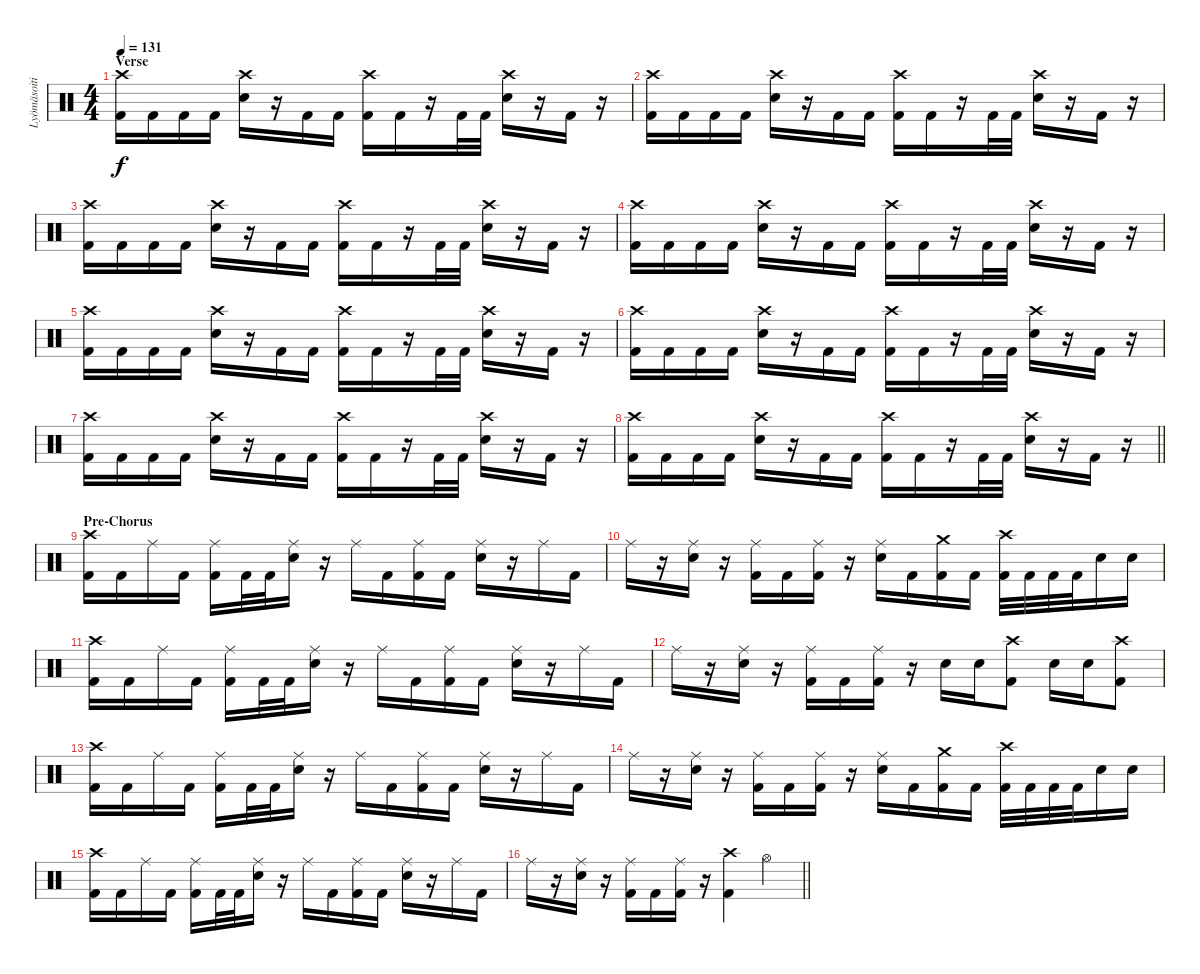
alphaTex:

\track ("Lyömäsoitin" "Lyömäsoiti") {instrument percussion}
\staff {score}
\articulation defaults
\ts (4 4)
\section ("" "Verse")
\tempo 131
\clef neutral
\ks c
("Crash high (hit)" "Kick (hit) 2").16{dy f} "Kick (hit) 2".16 "Kick (hit) 2".16 "Kick (hit) 2".16 ("Crash high (hit)" "Electric Snare (hit)").16 r.16 "Kick (hit) 2".16 "Kick (hit) 2".16 ("Crash high (hit)" "Kick (hit) 2").16 "Kick (hit) 2".16 r.16 "Kick (hit) 2".32 "Kick (hit) 2".32 ("Crash high (hit)" "Electric Snare (hit)").16 r.16 "Kick (hit) 2".16 r.16 |
("Crash high (hit)" "Kick (hit) 2").16 "Kick (hit) 2".16 "Kick (hit) 2".16 "Kick (hit) 2".16 ("Crash high (hit)" "Electric Snare (hit)").16 r.16 "Kick (hit) 2".16 "Kick (hit) 2".16 ("Crash high (hit)" "Kick (hit) 2").16 "Kick (hit) 2".16 r.16 "Kick (hit) 2".32 "Kick (hit) 2".32 ("Crash high (hit)" "Electric Snare (hit)").16 r.16 "Kick (hit) 2".16 r.16 |
("Crash high (hit)" "Kick (hit) 2").16 "Kick (hit) 2".16 "Kick (hit) 2".16 "Kick (hit) 2".16 ("Crash high (hit)" "Electric Snare (hit)").16 r.16 "Kick (hit) 2".16 "Kick (hit) 2".16 ("Crash high (hit)" "Kick (hit) 2").16 "Kick (hit) 2".16 r.16 "Kick (hit) 2".32 "Kick (hit) 2".32 ("Crash high (hit)" "Electric Snare (hit)").16 r.16 "Kick (hit) 2".16 r.16 |
("Crash high (hit)" "Kick (hit) 2").16 "Kick (hit) 2".16 "Kick (hit) 2".16 "Kick (hit) 2".16 ("Crash high (hit)" "Electric Snare (hit)").16 r.16 "Kick (hit) 2".16 "Kick (hit) 2".16 ("Crash high (hit)" "Kick (hit) 2").16 "Kick (hit) 2".16 r.16 "Kick (hit) 2".32 "Kick (hit) 2".32 ("Crash high (hit)" "Electric Snare (hit)").16 r.16 "Kick (hit) 2".16 r.16 |
("Crash high (hit)" "Kick (hit) 2").16 "Kick (hit) 2".16 "Kick (hit) 2".16 "Kick (hit) 2".16 ("Crash high (hit)" "Electric Snare (hit)").16 r.16 "Kick (hit) 2".16 "Kick (hit) 2".16 ("Crash high (hit)" "Kick (hit) 2").16 "Kick (hit) 2".16 r.16 "Kick (hit) 2".32 "Kick (hit) 2".32 ("Crash high (hit)" "Electric Snare (hit)").16 r.16 "Kick (hit) 2".16 r.16 |
("Crash high (hit)" "Kick (hit) 2").16 "Kick (hit) 2".16 "Kick (hit) 2".16 "Kick (hit) 2".16 ("Crash high (hit)" "Electric Snare (hit)").16 r.16 "Kick (hit) 2".16 "Kick (hit) 2".16 ("Crash high (hit)" "Kick (hit) 2").16 "Kick (hit) 2".16 r.16 "Kick (hit) 2".32 "Kick (hit) 2".32 ("Crash high (hit)" "Electric Snare (hit)").16 r.16 "Kick (hit) 2".16 r.16 |
("Crash high (hit)" "Kick (hit) 2").16 "Kick (hit) 2".16 "Kick (hit) 2".16 "Kick (hit) 2".16 ("Crash high (hit)" "Electric Snare (hit)").16 r.16 "Kick (hit) 2".16 "Kick (hit) 2".16 ("Crash high (hit)" "Kick (hit) 2").16 "Kick (hit) 2".16 r.16 "Kick (hit) 2".32 "Kick (hit) 2".32 ("Crash high (hit)" "Electric Snare (hit)").16 r.16 "Kick (hit) 2".16 r.16 |
\barLineRight lightlight
("Crash high (hit)" "Kick (hit) 2").16 "Kick (hit) 2".16 "Kick (hit) 2".16 "Kick (hit) 2".16 ("Crash high (hit)" "Electric Snare (hit)").16 r.16 "Kick (hit) 2".16 "Kick (hit) 2".16 ("Crash high (hit)" "Kick (hit) 2").16 "Kick (hit) 2".16 r.16 "Kick (hit) 2".32 "Kick (hit) 2".32 ("Crash high (hit)" "Electric Snare (hit)").16 r.16 "Kick (hit) 2".16 r.16 |
\section ("" "Pre-Chorus")
("Crash high (hit)" "Kick (hit) 2").16 "Kick (hit) 2".16 "Ride (middle)".16 "Kick (hit) 2".16 ("Ride (middle)" "Kick (hit) 2").16 "Kick (hit) 2".32 "Kick (hit) 2".32 ("Ride (middle)" "Electric Snare (hit)").16 r.16 "Ride (middle)".16 "Kick (hit) 2".16 ("Ride (middle)" "Kick (hit) 2").16 "Kick (hit) 2".16 ("Ride (middle)" "Electric Snare (hit)").16 r.16 "Ride (middle)".16 "Kick (hit) 2".16 |
"Ride (middle)".16 r.16 ("Ride (middle)" "Electric Snare (hit)").16 r.16 ("Ride (middle)" "Kick (hit) 2").16 "Kick (hit) 2".16 ("Ride (middle)" "Kick (hit) 2").16 r.16 ("Ride (middle)" "Electric Snare (hit)").16 "Kick (hit) 2".16 ("Crash medium (hit)" "Kick (hit) 2").16 "Kick (hit) 2".16 ("Crash high (hit)" "Kick (hit) 2").32 "Kick (hit) 2".32 "Kick (hit) 2".32 "Kick (hit) 2".32 "Electric Snare (hit)".16 "Electric Snare (hit)".16 |
("Crash high (hit)" "Kick (hit) 2").16 "Kick (hit) 2".16 "Ride (middle)".16 "Kick (hit) 2".16 ("Ride (middle)" "Kick (hit) 2").16 "Kick (hit) 2".32 "Kick (hit) 2".32 ("Ride (middle)" "Electric Snare (hit)").16 r.16 "Ride (middle)".16 "Kick (hit) 2".16 ("Ride (middle)" "Kick (hit) 2").16 "Kick (hit) 2".16 ("Ride (middle)" "Electric Snare (hit)").16 r.16 "Ride (middle)".16 "Kick (hit) 2".16 |
"Ride (middle)".16 r.16 ("Ride (middle)" "Electric Snare (hit)").16 r.16 ("Ride (middle)" "Kick (hit) 2").16 "Kick (hit) 2".16 ("Ride (middle)" "Kick (hit) 2").16 r.16 "Electric Snare (hit)".16 "Electric Snare (hit)".16 ("Crash high (hit)" "Kick (hit) 2").8 "Electric Snare (hit)".16 "Electric Snare (hit)".16 ("Crash high (hit)" "Kick (hit) 2").8 |
("Crash high (hit)" "Kick (hit) 2").16 "Kick (hit) 2".16 "Ride (middle)".16 "Kick (hit) 2".16 ("Ride (middle)" "Kick (hit) 2").16 "Kick (hit) 2".32 "Kick (hit) 2".32 ("Ride (middle)" "Electric Snare (hit)").16 r.16 "Ride (middle)".16 "Kick (hit) 2".16 ("Ride (middle)" "Kick (hit) 2").16 "Kick (hit) 2".16 ("Ride (middle)" "Electric Snare (hit)").16 r.16 "Ride (middle)".16 "Kick (hit) 2".16 |
"Ride (middle)".16 r.16 ("Ride (middle)" "Electric Snare (hit)").16 r.16 ("Ride (middle)" "Kick (hit) 2").16 "Kick (hit) 2".16 ("Ride (middle)" "Kick (hit) 2").16 r.16 ("Ride (middle)" "Electric Snare (hit)").16 "Kick (hit) 2".16 ("Crash medium (hit)" "Kick (hit) 2").16 "Kick (hit) 2".16 ("Crash high (hit)" "Kick (hit) 2").32 "Kick (hit) 2".32 "Kick (hit) 2".32 "Kick (hit) 2".32 "Electric Snare (hit)".16 "Electric Snare (hit)".16 |
("Crash high (hit)" "Kick (hit) 2").16 "Kick (hit) 2".16 "Ride (middle)".16 "Kick (hit) 2".16 ("Ride (middle)" "Kick (hit) 2").16 "Kick (hit) 2".32 "Kick (hit) 2".32 ("Ride (middle)" "Electric Snare (hit)").16 r.16 "Ride (middle)".16 "Kick (hit) 2".16 ("Ride (middle)" "Kick (hit) 2").16 "Kick (hit) 2".16 ("Ride (middle)" "Electric Snare (hit)").16 r.16 "Ride (middle)".16 "Kick (hit) 2".16 |
\barLineRight lightlight "Ride (middle)".16
r.16 ("Ride (middle)" "Electric Snare (hit)").16 r.16 ("Ride (middle)" "Kick (hit) 2").16 "Kick (hit) 2".16 ("Ride (middle)" "Kick (hit) 2").16 r.16 ("Crash high (hit)" "Kick (hit) 2").4 "Hi-Hat (open)".4
